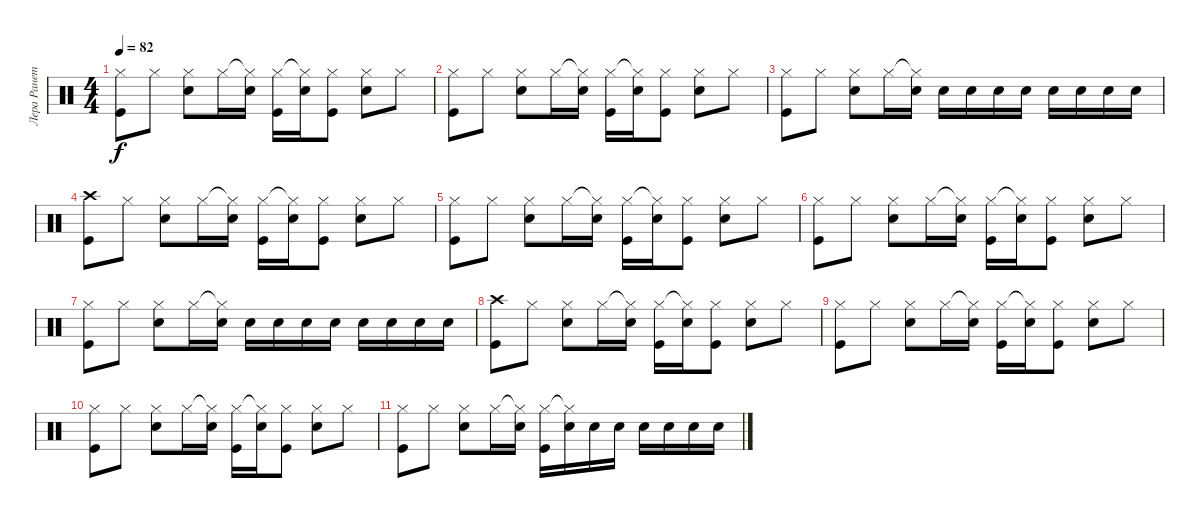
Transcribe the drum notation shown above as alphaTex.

\track ("Лера Ранетка" "Лера Ранет") {instrument percussion}
\staff {score}
\articulation defaults
\ts (4 4)
\tempo 82
\clef neutral
\ks c
("Hi-Hat (closed)" "Kick (hit)").8{dy f} "Hi-Hat (closed)".8 ("Hi-Hat (closed)" "Electric Snare (hit)").8 "Hi-Hat (closed)".16 ("Hi-Hat (closed)"{t} "Electric Snare (hit)").16 ("Hi-Hat (closed)" "Kick (hit)").16 ("Hi-Hat (closed)"{t} "Electric Snare (hit)").16 ("Hi-Hat (closed)" "Kick (hit)").8 ("Hi-Hat (closed)" "Electric Snare (hit)").8 "Hi-Hat (closed)".8 |
("Hi-Hat (closed)" "Kick (hit)").8 "Hi-Hat (closed)".8 ("Hi-Hat (closed)" "Electric Snare (hit)").8 "Hi-Hat (closed)".16 ("Hi-Hat (closed)"{t} "Electric Snare (hit)").16 ("Hi-Hat (closed)" "Kick (hit)").16 ("Hi-Hat (closed)"{t} "Electric Snare (hit)").16 ("Hi-Hat (closed)" "Kick (hit)").8 ("Hi-Hat (closed)" "Electric Snare (hit)").8 "Hi-Hat (closed)".8 |
("Hi-Hat (closed)" "Kick (hit)").8 "Hi-Hat (closed)".8 ("Hi-Hat (closed)" "Electric Snare (hit)").8 "Hi-Hat (closed)".16 ("Hi-Hat (closed)"{t} "Electric Snare (hit)").16 "Electric Snare (hit)".16 "Electric Snare (hit)".16 "Electric Snare (hit)".16 "Electric Snare (hit)".16 "Electric Snare (hit)".16 "Electric Snare (hit)".16 "Electric Snare (hit)".16 "Electric Snare (hit)".16 |
("Crash high (hit)" "Kick (hit)").8 "Hi-Hat (closed)".8 ("Hi-Hat (closed)" "Electric Snare (hit)").8 "Hi-Hat (closed)".16 ("Hi-Hat (closed)"{t} "Electric Snare (hit)").16 ("Hi-Hat (closed)" "Kick (hit)").16 ("Hi-Hat (closed)"{t} "Electric Snare (hit)").16 ("Hi-Hat (closed)" "Kick (hit)").8 ("Hi-Hat (closed)" "Electric Snare (hit)").8 "Hi-Hat (closed)".8 |
("Hi-Hat (closed)" "Kick (hit)").8 "Hi-Hat (closed)".8 ("Hi-Hat (closed)" "Electric Snare (hit)").8 "Hi-Hat (closed)".16 ("Hi-Hat (closed)"{t} "Electric Snare (hit)").16 ("Hi-Hat (closed)" "Kick (hit)").16 ("Hi-Hat (closed)"{t} "Electric Snare (hit)").16 ("Hi-Hat (closed)" "Kick (hit)").8 ("Hi-Hat (closed)" "Electric Snare (hit)").8 "Hi-Hat (closed)".8 |
("Hi-Hat (closed)" "Kick (hit)").8 "Hi-Hat (closed)".8 ("Hi-Hat (closed)" "Electric Snare (hit)").8 "Hi-Hat (closed)".16 ("Hi-Hat (closed)"{t} "Electric Snare (hit)").16 ("Hi-Hat (closed)" "Kick (hit)").16 ("Hi-Hat (closed)"{t} "Electric Snare (hit)").16 ("Hi-Hat (closed)" "Kick (hit)").8 ("Hi-Hat (closed)" "Electric Snare (hit)").8 "Hi-Hat (closed)".8 |
("Hi-Hat (closed)" "Kick (hit)").8 "Hi-Hat (closed)".8 ("Hi-Hat (closed)" "Electric Snare (hit)").8 "Hi-Hat (closed)".16 ("Hi-Hat (closed)"{t} "Electric Snare (hit)").16 "Electric Snare (hit)".16 "Electric Snare (hit)".16 "Electric Snare (hit)".16 "Electric Snare (hit)".16 "Electric Snare (hit)".16 "Electric Snare (hit)".16 "Electric Snare (hit)".16 "Electric Snare (hit)".16 |
("Crash high (hit)" "Kick (hit)").8 "Hi-Hat (closed)".8 ("Hi-Hat (closed)" "Electric Snare (hit)").8 "Hi-Hat (closed)".16 ("Hi-Hat (closed)"{t} "Electric Snare (hit)").16 ("Hi-Hat (closed)" "Kick (hit)").16 ("Hi-Hat (closed)"{t} "Electric Snare (hit)").16 ("Hi-Hat (closed)" "Kick (hit)").8 ("Hi-Hat (closed)" "Electric Snare (hit)").8 "Hi-Hat (closed)".8 |
("Hi-Hat (closed)" "Kick (hit)").8 "Hi-Hat (closed)".8 ("Hi-Hat (closed)" "Electric Snare (hit)").8 "Hi-Hat (closed)".16 ("Hi-Hat (closed)"{t} "Electric Snare (hit)").16 ("Hi-Hat (closed)" "Kick (hit)").16 ("Hi-Hat (closed)"{t} "Electric Snare (hit)").16 ("Hi-Hat (closed)" "Kick (hit)").8 ("Hi-Hat (closed)" "Electric Snare (hit)").8 "Hi-Hat (closed)".8 |
("Hi-Hat (closed)" "Kick (hit)").8 "Hi-Hat (closed)".8 ("Hi-Hat (closed)" "Electric Snare (hit)").8 "Hi-Hat (closed)".16 ("Hi-Hat (closed)"{t} "Electric Snare (hit)").16 ("Hi-Hat (closed)" "Kick (hit)").16 ("Hi-Hat (closed)"{t} "Electric Snare (hit)").16 ("Hi-Hat (closed)" "Kick (hit)").8 ("Hi-Hat (closed)" "Electric Snare (hit)").8 "Hi-Hat (closed)".8 |
("Hi-Hat (closed)" "Kick (hit)").8 "Hi-Hat (closed)".8 ("Hi-Hat (closed)" "Electric Snare (hit)").8 "Hi-Hat (closed)".16 ("Hi-Hat (closed)"{t} "Electric Snare (hit)").16 ("Hi-Hat (closed)" "Kick (hit)").16 ("Hi-Hat (closed)"{t} "Electric Snare (hit)").16 "Electric Snare (hit)".16 "Electric Snare (hit)".16 "Electric Snare (hit)".16 "Electric Snare (hit)".16 "Electric Snare (hit)".16 "Electric Snare (hit)".16
